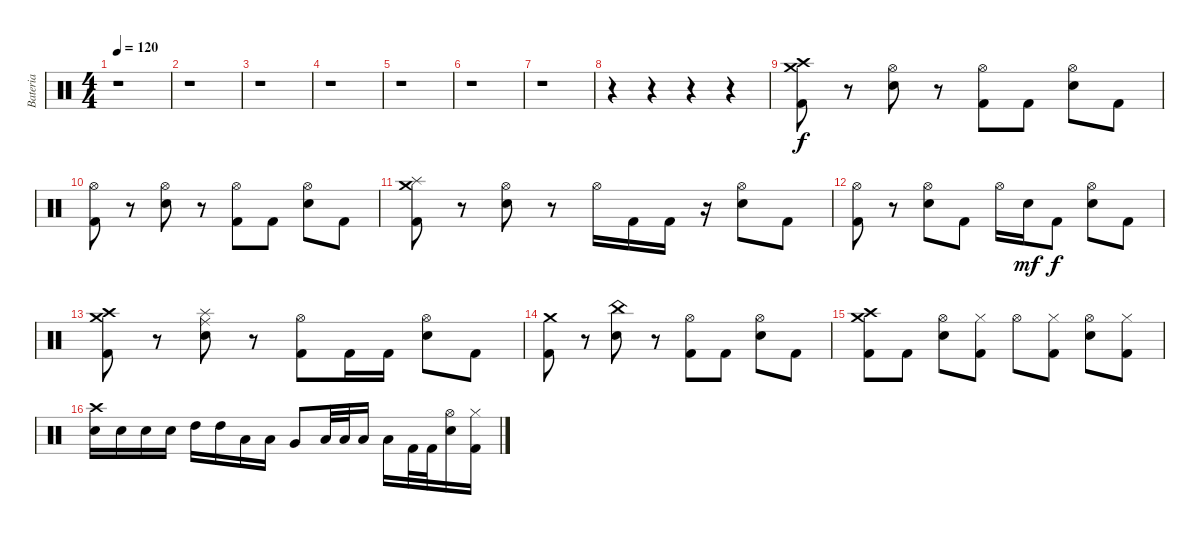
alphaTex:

\track ("Bateria" "Bateria") {instrument percussion}
\staff {score}
\articulation defaults
\ts (4 4)
\tempo 120
\clef neutral
\ks c
r.1{dy f} |
r.1 |
r.1 |
r.1 |
r.1 |
r.1 |
r.1 |
r.4 r.4 r.4 r.4 |
("Crash medium (hit)" "Crash high (hit)" "Kick (hit) 2").8 r.8 ("Hi-Hat (open)" "Electric Snare (hit)").8 r.8 ("Hi-Hat (open)" "Kick (hit) 2").8 "Kick (hit) 2".8 ("Hi-Hat (open)" "Electric Snare (hit)").8 "Kick (hit) 2".8 |
("Hi-Hat (open)" "Kick (hit) 2").8 r.8 ("Hi-Hat (open)" "Electric Snare (hit)").8 r.8 ("Hi-Hat (open)" "Kick (hit) 2").8 "Kick (hit) 2".8 ("Hi-Hat (open)" "Electric Snare (hit)").8 "Kick (hit) 2".8 |
("Crash medium (hit)" "Splash (hit)" "Kick (hit) 2").8 r.8 ("Hi-Hat (open)" "Electric Snare (hit)").8 r.8 "Hi-Hat (open)".16 "Kick (hit) 2".16 "Kick (hit) 2".16 r.16 ("Hi-Hat (open)" "Electric Snare (hit)").8 "Kick (hit) 2".8 |
("Hi-Hat (open)" "Kick (hit) 2").8 r.8 ("Hi-Hat (open)" "Electric Snare (hit)").8 "Kick (hit) 2".8 "Hi-Hat (open)".16 "Electric Snare (hit)".16{dy mf} "Kick (hit) 2".8{dy f} ("Hi-Hat (open)" "Electric Snare (hit)").8 "Kick (hit) 2".8 |
("Crash medium (hit)" "Crash high (hit)" "Kick (hit) 2").8 r.8 ("Splash (hit)" "Ride (middle)" "Electric Snare (hit)").8 r.8 ("Hi-Hat (open)" "Kick (hit) 2").8 "Kick (hit) 2".16 "Kick (hit) 2".16 ("Hi-Hat (open)" "Electric Snare (hit)").8 "Kick (hit) 2".8 |
("Crash medium (hit)" "Kick (hit) 2").8 r.8 ("China (hit)" "Electric Snare (hit)").8 r.8 ("Hi-Hat (open)" "Kick (hit) 2").8 "Kick (hit) 2".8 ("Hi-Hat (open)" "Electric Snare (hit)").8 "Kick (hit) 2".8 |
("Crash medium (hit)" "Crash high (hit)" "Kick (hit) 2").8 "Kick (hit) 2".8 ("Hi-Hat (open)" "Electric Snare (hit)").8 ("Hi-Hat (closed)" "Kick (hit) 2").8 "Hi-Hat (open)".8 ("Hi-Hat (closed)" "Kick (hit) 2").8 ("Hi-Hat (open)" "Electric Snare (hit)").8 ("Hi-Hat (closed)" "Kick (hit) 2").8 |
("Crash high (hit)" "Electric Snare (hit)").16 "Electric Snare (hit)".16 "Electric Snare (hit)".16 "Electric Snare (hit)".16 "High Tom (hit)".16 "High Tom (hit)".16 "Low Tom (hit)".16 "Low Tom (hit)".16 "Very Low Tom (hit)".8 "Low Floor Tom (hit)".32 "Low Floor Tom (hit)".32 "Low Floor Tom (hit)".16 "Low Floor Tom (hit)".16 "Kick (hit) 2".32 "Kick (hit) 2".32 ("Hi-Hat (open)" "Electric Snare (hit)").16 ("Hi-Hat (closed)" "Kick (hit) 2").16
